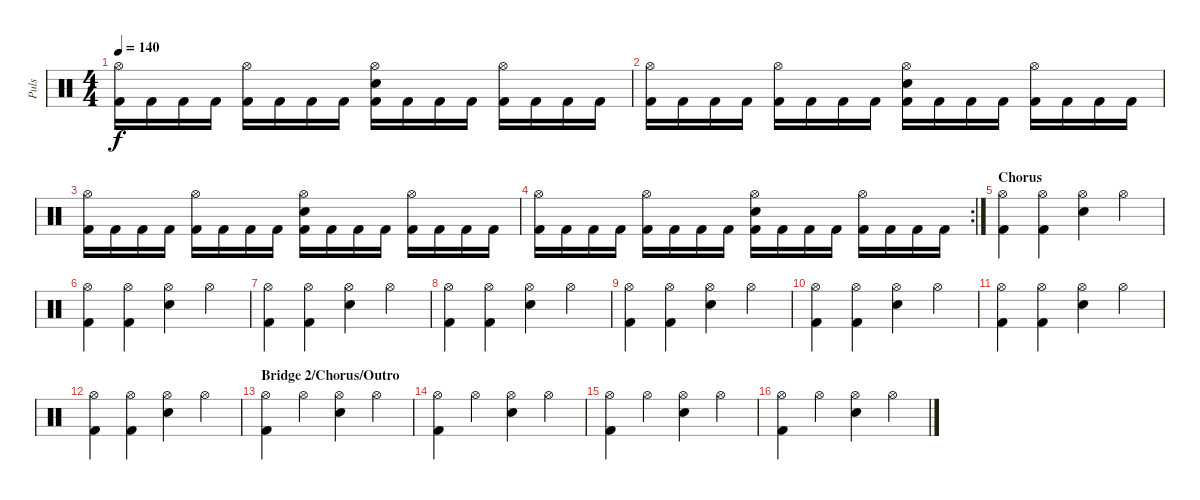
\track ("Puls" "Puls") {instrument percussion}
\staff {score}
\articulation defaults
\ts (4 4)
\tempo 140
\clef neutral
\ks c
("Hi-Hat (open)" "Kick (hit) 2").16{dy f} "Kick (hit) 2".16 "Kick (hit) 2".16 "Kick (hit) 2".16 ("Hi-Hat (open)" "Kick (hit) 2").16 "Kick (hit) 2".16 "Kick (hit) 2".16 "Kick (hit) 2".16 ("Hi-Hat (open)" "Electric Snare (hit)" "Kick (hit) 2").16 "Kick (hit) 2".16 "Kick (hit) 2".16 "Kick (hit) 2".16 ("Hi-Hat (open)" "Kick (hit) 2").16 "Kick (hit) 2".16 "Kick (hit) 2".16 "Kick (hit) 2".16 |
("Hi-Hat (open)" "Kick (hit) 2").16 "Kick (hit) 2".16 "Kick (hit) 2".16 "Kick (hit) 2".16 ("Hi-Hat (open)" "Kick (hit) 2").16 "Kick (hit) 2".16 "Kick (hit) 2".16 "Kick (hit) 2".16 ("Hi-Hat (open)" "Electric Snare (hit)" "Kick (hit) 2").16 "Kick (hit) 2".16 "Kick (hit) 2".16 "Kick (hit) 2".16 ("Hi-Hat (open)" "Kick (hit) 2").16 "Kick (hit) 2".16 "Kick (hit) 2".16 "Kick (hit) 2".16 |
("Hi-Hat (open)" "Kick (hit) 2").16 "Kick (hit) 2".16 "Kick (hit) 2".16 "Kick (hit) 2".16 ("Hi-Hat (open)" "Kick (hit) 2").16 "Kick (hit) 2".16 "Kick (hit) 2".16 "Kick (hit) 2".16 ("Hi-Hat (open)" "Electric Snare (hit)" "Kick (hit) 2").16 "Kick (hit) 2".16 "Kick (hit) 2".16 "Kick (hit) 2".16 ("Hi-Hat (open)" "Kick (hit) 2").16 "Kick (hit) 2".16 "Kick (hit) 2".16 "Kick (hit) 2".16 |
\rc 2
("Hi-Hat (open)" "Kick (hit) 2").16 "Kick (hit) 2".16 "Kick (hit) 2".16 "Kick (hit) 2".16 ("Hi-Hat (open)" "Kick (hit) 2").16 "Kick (hit) 2".16 "Kick (hit) 2".16 "Kick (hit) 2".16 ("Hi-Hat (open)" "Electric Snare (hit)" "Kick (hit) 2").16 "Kick (hit) 2".16 "Kick (hit) 2".16 "Kick (hit) 2".16 ("Hi-Hat (open)" "Kick (hit) 2").16 "Kick (hit) 2".16 "Kick (hit) 2".16 "Kick (hit) 2".16 |
\section ("" "Chorus")
("Hi-Hat (open)" "Kick (hit) 2").4 ("Hi-Hat (open)" "Kick (hit) 2").4 ("Hi-Hat (open)" "Snare (hit) 2").4 "Hi-Hat (open)".4 |
("Hi-Hat (open)" "Kick (hit) 2").4 ("Hi-Hat (open)" "Kick (hit) 2").4 ("Hi-Hat (open)" "Snare (hit) 2").4 "Hi-Hat (open)".4 |
("Hi-Hat (open)" "Kick (hit) 2").4 ("Hi-Hat (open)" "Kick (hit) 2").4 ("Hi-Hat (open)" "Snare (hit) 2").4 "Hi-Hat (open)".4 |
("Hi-Hat (open)" "Kick (hit) 2").4 ("Hi-Hat (open)" "Kick (hit) 2").4 ("Hi-Hat (open)" "Snare (hit) 2").4 "Hi-Hat (open)".4 |
("Hi-Hat (open)" "Kick (hit) 2").4 ("Hi-Hat (open)" "Kick (hit) 2").4 ("Hi-Hat (open)" "Snare (hit) 2").4 "Hi-Hat (open)".4 |
("Hi-Hat (open)" "Kick (hit) 2").4 ("Hi-Hat (open)" "Kick (hit) 2").4 ("Hi-Hat (open)" "Snare (hit) 2").4 "Hi-Hat (open)".4 |
("Hi-Hat (open)" "Kick (hit) 2").4 ("Hi-Hat (open)" "Kick (hit) 2").4 ("Hi-Hat (open)" "Snare (hit) 2").4 "Hi-Hat (open)".4 |
("Hi-Hat (open)" "Kick (hit) 2").4 ("Hi-Hat (open)" "Kick (hit) 2").4 ("Hi-Hat (open)" "Snare (hit) 2").4 "Hi-Hat (open)".4 |
\section ("" "Bridge 2/Chorus/Outro")
("Hi-Hat (open)" "Kick (hit) 2").4 "Hi-Hat (open)".4 ("Hi-Hat (open)" "Electric Snare (hit)").4 "Hi-Hat (open)".4 |
("Hi-Hat (open)" "Kick (hit) 2").4 "Hi-Hat (open)".4 ("Hi-Hat (open)" "Electric Snare (hit)").4 "Hi-Hat (open)".4 |
("Hi-Hat (open)" "Kick (hit) 2").4 "Hi-Hat (open)".4 ("Hi-Hat (open)" "Electric Snare (hit)").4 "Hi-Hat (open)".4 |
("Hi-Hat (open)" "Kick (hit) 2").4 "Hi-Hat (open)".4 ("Hi-Hat (open)" "Electric Snare (hit)").4 "Hi-Hat (open)".4
